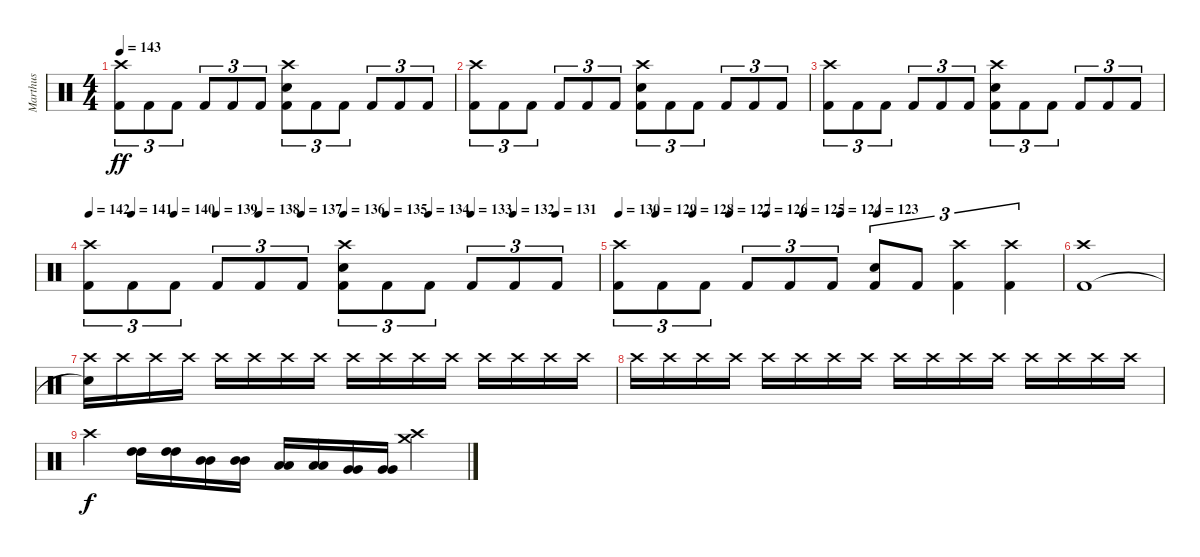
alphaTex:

\track ("Marthus" "Marthus") {instrument percussion}
\staff {score}
\articulation defaults
\ts (4 4)
\tempo 143
\clef neutral
\ks c
("Crash high (hit)" "Kick (hit) 2").8{tu (3 2) dy ff} "Kick (hit) 2".8{tu (3 2)} "Kick (hit) 2".8{tu (3 2)} "Kick (hit) 2".8{tu (3 2)} "Kick (hit) 2".8{tu (3 2)} "Kick (hit) 2".8{tu (3 2)} ("Crash high (hit)" "Electric Snare (hit)" "Kick (hit) 2").8{tu (3 2)} "Kick (hit) 2".8{tu (3 2)} "Kick (hit) 2".8{tu (3 2)} "Kick (hit) 2".8{tu (3 2)} "Kick (hit) 2".8{tu (3 2)} "Kick (hit) 2".8{tu (3 2)} |
("Crash high (hit)" "Kick (hit) 2").8{tu (3 2)} "Kick (hit) 2".8{tu (3 2)} "Kick (hit) 2".8{tu (3 2)} "Kick (hit) 2".8{tu (3 2)} "Kick (hit) 2".8{tu (3 2)} "Kick (hit) 2".8{tu (3 2)} ("Crash high (hit)" "Electric Snare (hit)" "Kick (hit) 2").8{tu (3 2)} "Kick (hit) 2".8{tu (3 2)} "Kick (hit) 2".8{tu (3 2)} "Kick (hit) 2".8{tu (3 2)} "Kick (hit) 2".8{tu (3 2)} "Kick (hit) 2".8{tu (3 2)} |
("Crash high (hit)" "Kick (hit) 2").8{tu (3 2)} "Kick (hit) 2".8{tu (3 2)} "Kick (hit) 2".8{tu (3 2)} "Kick (hit) 2".8{tu (3 2)} "Kick (hit) 2".8{tu (3 2)} "Kick (hit) 2".8{tu (3 2)} ("Crash high (hit)" "Electric Snare (hit)" "Kick (hit) 2").8{tu (3 2)} "Kick (hit) 2".8{tu (3 2)} "Kick (hit) 2".8{tu (3 2)} "Kick (hit) 2".8{tu (3 2)} "Kick (hit) 2".8{tu (3 2)} "Kick (hit) 2".8{tu (3 2)} |
\tempo 142
\tempo (141 0.08333333333333333)
\tempo (140 0.16666666666666666)
\tempo (139 0.25)
\tempo (138 0.3333333333333333)
\tempo (137 0.4166666666666667)
\tempo (136 0.5)
\tempo (135 0.5833333333333334)
\tempo (134 0.6666666666666666)
\tempo (133 0.75)
\tempo (132 0.8333333333333334)
\tempo (131 0.9166666666666666)
("Crash high (hit)" "Kick (hit) 2").8{tu (3 2)} "Kick (hit) 2".8{tu (3 2)} "Kick (hit) 2".8{tu (3 2)} "Kick (hit) 2".8{tu (3 2)} "Kick (hit) 2".8{tu (3 2)} "Kick (hit) 2".8{tu (3 2)} ("Crash high (hit)" "Electric Snare (hit)" "Kick (hit) 2").8{tu (3 2)} "Kick (hit) 2".8{tu (3 2)} "Kick (hit) 2".8{tu (3 2)} "Kick (hit) 2".8{tu (3 2)} "Kick (hit) 2".8{tu (3 2)} "Kick (hit) 2".8{tu (3 2)} |
\tempo 130
\tempo (129 0.08333333333333333)
\tempo (128 0.16666666666666666)
\tempo (127 0.25)
\tempo (126 0.3333333333333333)
\tempo (125 0.4166666666666667)
\tempo (124 0.5)
\tempo (123 0.5833333333333334)
("Crash high (hit)" "Kick (hit) 2").8{tu (3 2)} "Kick (hit) 2".8{tu (3 2)} "Kick (hit) 2".8{tu (3 2)} "Kick (hit) 2".8{tu (3 2)} "Kick (hit) 2".8{tu (3 2)} "Kick (hit) 2".8{tu (3 2)} ("Electric Snare (hit)" "Kick (hit) 2").8{tu (3 2)} "Kick (hit) 2".8{tu (3 2)} ("Crash high (hit)" "Kick (hit) 2").4{tu (3 2)} ("Crash high (hit)" "Kick (hit) 2").4{tu (3 2)} |
("Crash high (hit)" "Kick (hit) 2").1 |
("Crash high (hit)" "Snare (hit)"{t}).16 "Crash high (hit)".16 "Crash high (hit)".16 "Crash high (hit)".16 "Crash high (hit)".16 "Crash high (hit)".16 "Crash high (hit)".16 "Crash high (hit)".16 "Crash high (hit)".16 "Crash high (hit)".16 "Crash high (hit)".16 "Crash high (hit)".16 "Crash high (hit)".16 "Crash high (hit)".16 "Crash high (hit)".16 "Crash high (hit)".16 |
"Crash high (hit)".16 "Crash high (hit)".16 "Crash high (hit)".16 "Crash high (hit)".16 "Crash high (hit)".16 "Crash high (hit)".16 "Crash high (hit)".16 "Crash high (hit)".16 "Crash high (hit)".16 "Crash high (hit)".16 "Crash high (hit)".16 "Crash high (hit)".16 "Crash high (hit)".16 "Crash high (hit)".16 "Crash high (hit)".16 "Crash high (hit)".16 |
"Crash high (hit)".4{dy f} ("High Tom (hit)" "High Tom (hit)").16 ("High Tom (hit)" "High Tom (hit)").16 ("Mid Tom (hit)" "Mid Tom (hit)").16 ("Mid Tom (hit)" "Mid Tom (hit)").16 ("Low Tom (hit)" "Low Tom (hit)").16 ("Low Tom (hit)" "Low Tom (hit)").16 ("Very Low Tom (hit)" "Very Low Tom (hit)").16 ("Very Low Tom (hit)" "Very Low Tom (hit)").16 ("Crash high (hit)" "Crash medium (hit)").4
